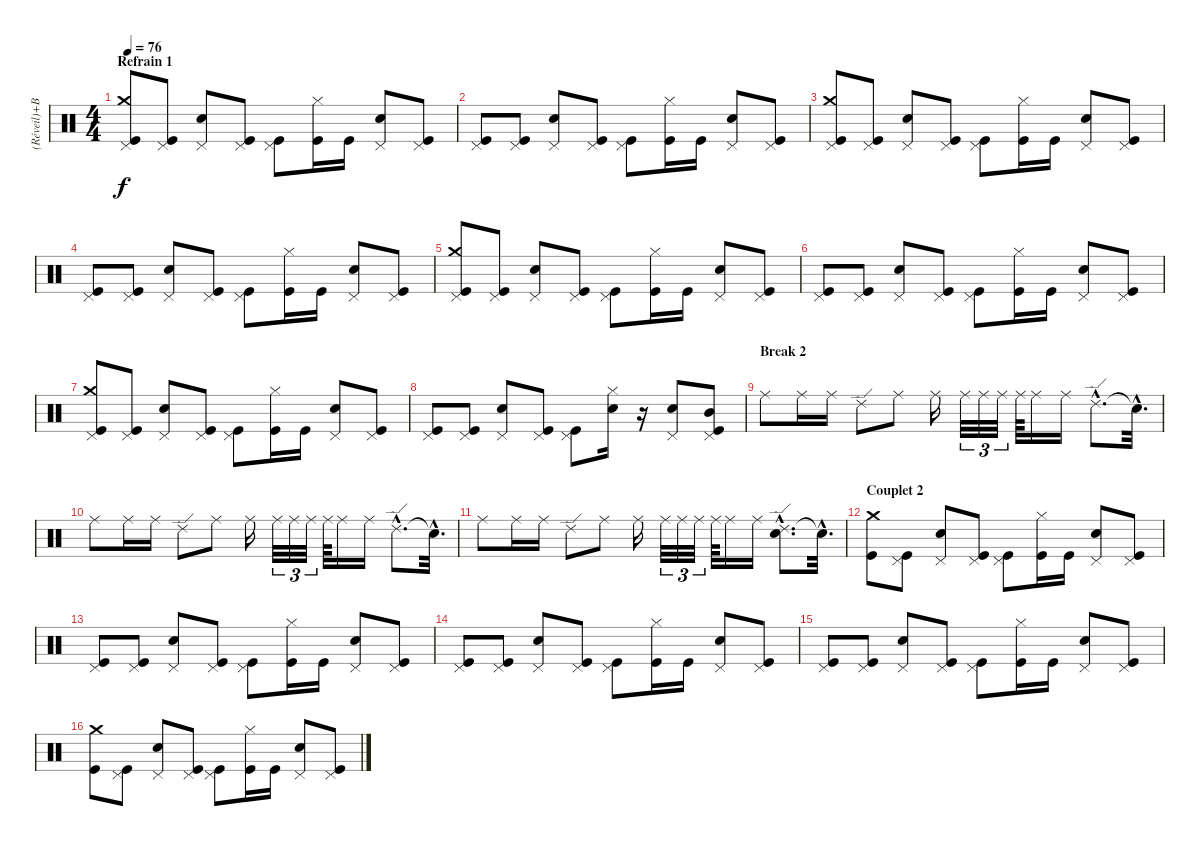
\track ("(Réveil)+Batterie" "(Réveil)+B") {instrument percussion}
\staff {score}
\articulation defaults
\ts (4 4)
\section ("" "Refrain 1")
\tempo 76
\clef neutral
\ks c
("Pedal Hi-Hat (hit)" "Crash medium (hit)" "Kick (hit)").8{dy f volume 16} ("Pedal Hi-Hat (hit)" "Kick (hit)").8 ("Pedal Hi-Hat (hit)" "Electric Snare (hit)").8 ("Pedal Hi-Hat (hit)" "Kick (hit)").8 ("Pedal Hi-Hat (hit)" "Kick (hit)").8 ("Hi-Hat (closed)" "Kick (hit)").16 "Kick (hit)".16 ("Pedal Hi-Hat (hit)" "Electric Snare (hit)").8 ("Pedal Hi-Hat (hit)" "Kick (hit)").8 |
("Pedal Hi-Hat (hit)" "Kick (hit)").8 ("Pedal Hi-Hat (hit)" "Kick (hit)").8 ("Pedal Hi-Hat (hit)" "Electric Snare (hit)").8 ("Pedal Hi-Hat (hit)" "Kick (hit)").8 ("Pedal Hi-Hat (hit)" "Kick (hit)").8 ("Hi-Hat (closed)" "Kick (hit)").16 "Kick (hit)".16 ("Pedal Hi-Hat (hit)" "Electric Snare (hit)").8 ("Pedal Hi-Hat (hit)" "Kick (hit)").8 |
("Pedal Hi-Hat (hit)" "Crash medium (hit)" "Kick (hit)").8 ("Pedal Hi-Hat (hit)" "Kick (hit)").8 ("Pedal Hi-Hat (hit)" "Electric Snare (hit)").8 ("Pedal Hi-Hat (hit)" "Kick (hit)").8 ("Pedal Hi-Hat (hit)" "Kick (hit)").8 ("Hi-Hat (closed)" "Kick (hit)").16 "Kick (hit)".16 ("Pedal Hi-Hat (hit)" "Electric Snare (hit)").8 ("Pedal Hi-Hat (hit)" "Kick (hit)").8 |
("Pedal Hi-Hat (hit)" "Kick (hit)").8 ("Pedal Hi-Hat (hit)" "Kick (hit)").8 ("Pedal Hi-Hat (hit)" "Electric Snare (hit)").8 ("Pedal Hi-Hat (hit)" "Kick (hit)").8 ("Pedal Hi-Hat (hit)" "Kick (hit)").8 ("Hi-Hat (closed)" "Kick (hit)").16 "Kick (hit)".16 ("Pedal Hi-Hat (hit)" "Electric Snare (hit)").8 ("Pedal Hi-Hat (hit)" "Kick (hit)").8 |
("Pedal Hi-Hat (hit)" "Crash medium (hit)" "Kick (hit)").8{volume 16} ("Pedal Hi-Hat (hit)" "Kick (hit)").8 ("Pedal Hi-Hat (hit)" "Electric Snare (hit)").8 ("Pedal Hi-Hat (hit)" "Kick (hit)").8 ("Pedal Hi-Hat (hit)" "Kick (hit)").8 ("Hi-Hat (closed)" "Kick (hit)").16 "Kick (hit)".16 ("Pedal Hi-Hat (hit)" "Electric Snare (hit)").8 ("Pedal Hi-Hat (hit)" "Kick (hit)").8 |
("Pedal Hi-Hat (hit)" "Kick (hit)").8 ("Pedal Hi-Hat (hit)" "Kick (hit)").8 ("Pedal Hi-Hat (hit)" "Electric Snare (hit)").8 ("Pedal Hi-Hat (hit)" "Kick (hit)").8 ("Pedal Hi-Hat (hit)" "Kick (hit)").8 ("Hi-Hat (closed)" "Kick (hit)").16 "Kick (hit)".16 ("Pedal Hi-Hat (hit)" "Electric Snare (hit)").8 ("Pedal Hi-Hat (hit)" "Kick (hit)").8 |
("Pedal Hi-Hat (hit)" "Crash medium (hit)" "Kick (hit)").8 ("Pedal Hi-Hat (hit)" "Kick (hit)").8 ("Pedal Hi-Hat (hit)" "Electric Snare (hit)").8 ("Pedal Hi-Hat (hit)" "Kick (hit)").8 ("Pedal Hi-Hat (hit)" "Kick (hit)").8 ("Hi-Hat (closed)" "Kick (hit)").16 "Kick (hit)".16 ("Pedal Hi-Hat (hit)" "Electric Snare (hit)").8 ("Pedal Hi-Hat (hit)" "Kick (hit)").8 |
("Pedal Hi-Hat (hit)" "Kick (hit)").8 ("Pedal Hi-Hat (hit)" "Kick (hit)").8 ("Pedal Hi-Hat (hit)" "Electric Snare (hit)").8 ("Pedal Hi-Hat (hit)" "Kick (hit)").8 ("Pedal Hi-Hat (hit)" "Kick (hit)").8 ("Hi-Hat (closed)" "Electric Snare (hit)").16 r.16 ("Pedal Hi-Hat (hit)" "Electric Snare (hit)").8 ("Pedal Hi-Hat (hit)" "Mid Tom (hit)" "Kick (hit)").8 |
\section ("" "Break 2")
"Ride (middle)".8 "Ride (middle)".16 "Ride (middle)".16 "Ride (edge) 2".8 "Ride (middle)".8 "Ride (middle)".16 "Ride (middle)".32{tu (3 2)} "Ride (middle)".32{tu (3 2)} "Ride (middle)".32{tu (3 2)} "Ride (middle)".64 "Ride (middle)".16 "Ride (middle)".16 "Ride (edge) 2"{hac}.8{d} "Snare (hit)"{hac t}.32{d} |
"Ride (middle)".8 "Ride (middle)".16 "Ride (middle)".16 "Ride (edge) 2".8 "Ride (middle)".8 "Ride (middle)".16 "Ride (middle)".32{tu (3 2)} "Ride (middle)".32{tu (3 2)} "Ride (middle)".32{tu (3 2)} "Ride (middle)".64 "Ride (middle)".16 "Ride (middle)".16 "Ride (edge) 2"{hac}.8{d} "Snare (hit)"{hac t}.32{d} |
"Ride (middle)".8 "Ride (middle)".16 "Ride (middle)".16 "Ride (edge) 2".8 "Ride (middle)".8 "Ride (middle)".16 "Ride (middle)".32{tu (3 2)} "Ride (middle)".32{tu (3 2)} "Ride (middle)".32{tu (3 2)} "Ride (middle)".64 "Ride (middle)".16 "Ride (middle)".16 ("Ride (edge) 2"{hac} "Electric Snare (hit)"{hac}).8{d} "Snare (hit)"{hac t}.32{d} |
\section ("" "Couplet 2")
("Crash medium (hit)" "Kick (hit)").8 ("Pedal Hi-Hat (hit)" "Kick (hit)").8 ("Pedal Hi-Hat (hit)" "Electric Snare (hit)").8 ("Pedal Hi-Hat (hit)" "Kick (hit)").8 ("Pedal Hi-Hat (hit)" "Kick (hit)").8 ("Hi-Hat (closed)" "Kick (hit)").16 "Kick (hit)".16 ("Pedal Hi-Hat (hit)" "Electric Snare (hit)").8 ("Pedal Hi-Hat (hit)" "Kick (hit)").8 |
("Pedal Hi-Hat (hit)" "Kick (hit)").8 ("Pedal Hi-Hat (hit)" "Kick (hit)").8 ("Pedal Hi-Hat (hit)" "Electric Snare (hit)").8 ("Pedal Hi-Hat (hit)" "Kick (hit)").8 ("Pedal Hi-Hat (hit)" "Kick (hit)").8 ("Hi-Hat (closed)" "Kick (hit)").16 "Kick (hit)".16 ("Pedal Hi-Hat (hit)" "Electric Snare (hit)").8 ("Pedal Hi-Hat (hit)" "Kick (hit)").8 |
("Pedal Hi-Hat (hit)" "Kick (hit)").8 ("Pedal Hi-Hat (hit)" "Kick (hit)").8 ("Pedal Hi-Hat (hit)" "Electric Snare (hit)").8 ("Pedal Hi-Hat (hit)" "Kick (hit)").8 ("Pedal Hi-Hat (hit)" "Kick (hit)").8 ("Hi-Hat (closed)" "Kick (hit)").16 "Kick (hit)".16 ("Pedal Hi-Hat (hit)" "Electric Snare (hit)").8 ("Pedal Hi-Hat (hit)" "Kick (hit)").8 |
("Pedal Hi-Hat (hit)" "Kick (hit)").8 ("Pedal Hi-Hat (hit)" "Kick (hit)").8 ("Pedal Hi-Hat (hit)" "Electric Snare (hit)").8 ("Pedal Hi-Hat (hit)" "Kick (hit)").8 ("Pedal Hi-Hat (hit)" "Kick (hit)").8 ("Hi-Hat (closed)" "Kick (hit)").16 "Kick (hit)".16 ("Pedal Hi-Hat (hit)" "Electric Snare (hit)").8 ("Pedal Hi-Hat (hit)" "Kick (hit)").8 |
("Crash medium (hit)" "Kick (hit)").8 ("Pedal Hi-Hat (hit)" "Kick (hit)").8 ("Pedal Hi-Hat (hit)" "Electric Snare (hit)").8 ("Pedal Hi-Hat (hit)" "Kick (hit)").8 ("Pedal Hi-Hat (hit)" "Kick (hit)").8 ("Hi-Hat (closed)" "Kick (hit)").16 "Kick (hit)".16 ("Pedal Hi-Hat (hit)" "Electric Snare (hit)").8 ("Pedal Hi-Hat (hit)" "Kick (hit)").8
